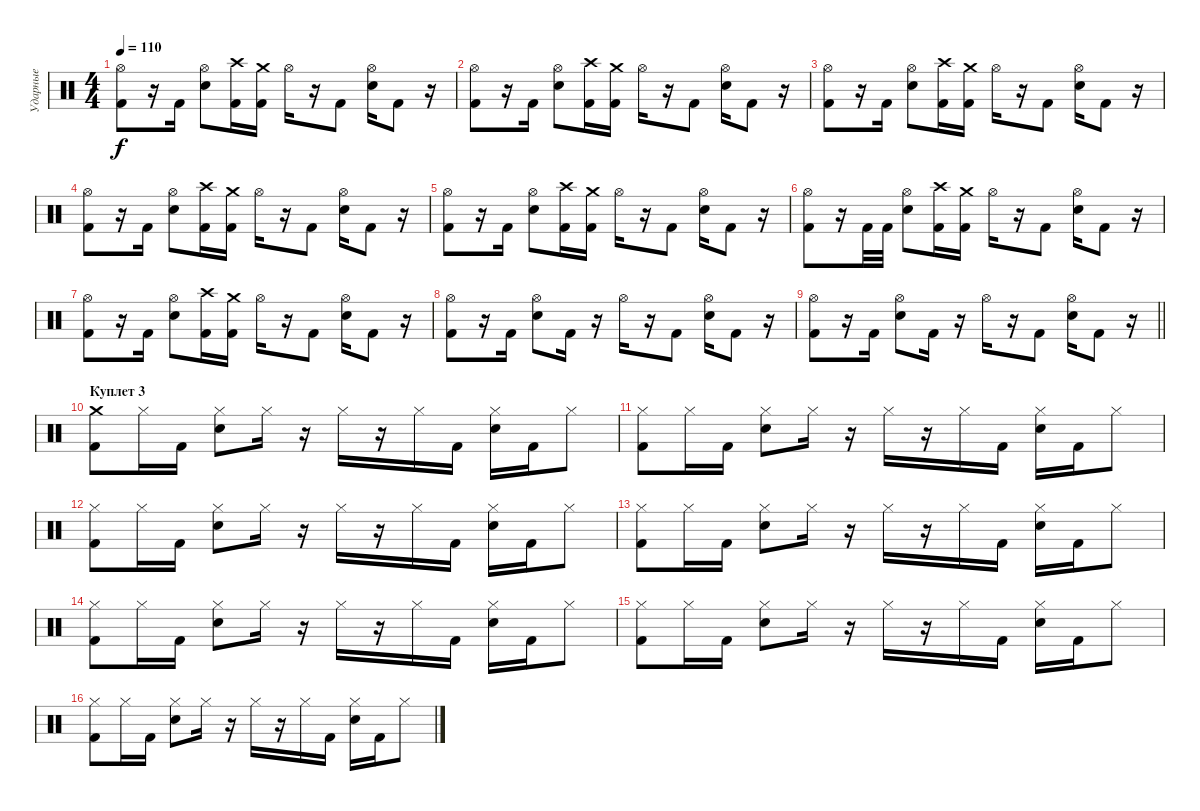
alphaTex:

\track ("Ударные" "Ударные") {instrument percussion}
\staff {score}
\articulation defaults
\ts (4 4)
\tempo 110
\clef neutral
\ks c
("Hi-Hat (open)" "Kick (hit) 2").8{dy f} r.16 "Kick (hit) 2".16 ("Hi-Hat (open)" "Snare (hit) 2").8 ("Crash high (hit)" "Kick (hit) 2").16 ("Crash medium (hit)" "Kick (hit) 2").16 "Hi-Hat (open)".16 r.16 "Kick (hit) 2".8 ("Hi-Hat (open)" "Snare (hit) 2").16 "Kick (hit) 2".8 r.16 |
("Hi-Hat (open)" "Kick (hit) 2").8 r.16 "Kick (hit) 2".16 ("Hi-Hat (open)" "Snare (hit) 2").8 ("Crash high (hit)" "Kick (hit) 2").16 ("Crash medium (hit)" "Kick (hit) 2").16 "Hi-Hat (open)".16 r.16 "Kick (hit) 2".8 ("Hi-Hat (open)" "Snare (hit) 2").16 "Kick (hit) 2".8 r.16 |
("Hi-Hat (open)" "Kick (hit) 2").8 r.16 "Kick (hit) 2".16 ("Hi-Hat (open)" "Snare (hit) 2").8 ("Crash high (hit)" "Kick (hit) 2").16 ("Crash medium (hit)" "Kick (hit) 2").16 "Hi-Hat (open)".16 r.16 "Kick (hit) 2".8 ("Hi-Hat (open)" "Snare (hit) 2").16 "Kick (hit) 2".8 r.16 |
("Hi-Hat (open)" "Kick (hit) 2").8 r.16 "Kick (hit) 2".16 ("Hi-Hat (open)" "Snare (hit) 2").8 ("Crash high (hit)" "Kick (hit) 2").16 ("Crash medium (hit)" "Kick (hit) 2").16 "Hi-Hat (open)".16 r.16 "Kick (hit) 2".8 ("Hi-Hat (open)" "Snare (hit) 2").16 "Kick (hit) 2".8 r.16 |
("Hi-Hat (open)" "Kick (hit) 2").8 r.16 "Kick (hit) 2".16 ("Hi-Hat (open)" "Snare (hit) 2").8 ("Crash high (hit)" "Kick (hit) 2").16 ("Crash medium (hit)" "Kick (hit) 2").16 "Hi-Hat (open)".16 r.16 "Kick (hit) 2".8 ("Hi-Hat (open)" "Snare (hit) 2").16 "Kick (hit) 2".8 r.16 |
("Hi-Hat (open)" "Kick (hit) 2").8 r.16 "Kick (hit) 2".32 "Kick (hit) 2".32 ("Hi-Hat (open)" "Snare (hit) 2").8 ("Crash high (hit)" "Kick (hit) 2").16 ("Crash medium (hit)" "Kick (hit) 2").16 "Hi-Hat (open)".16 r.16 "Kick (hit) 2".8 ("Hi-Hat (open)" "Snare (hit) 2").16 "Kick (hit) 2".8 r.16 |
("Hi-Hat (open)" "Kick (hit) 2").8 r.16 "Kick (hit) 2".16 ("Hi-Hat (open)" "Snare (hit) 2").8 ("Crash high (hit)" "Kick (hit) 2").16 ("Crash medium (hit)" "Kick (hit) 2").16 "Hi-Hat (open)".16 r.16 "Kick (hit) 2".8 ("Hi-Hat (open)" "Snare (hit) 2").16 "Kick (hit) 2".8 r.16 |
("Hi-Hat (open)" "Kick (hit) 2").8 r.16 "Kick (hit) 2".16 ("Hi-Hat (open)" "Snare (hit) 2").8 "Kick (hit) 2".16 r.16 "Hi-Hat (open)".16 r.16 "Kick (hit) 2".8 ("Hi-Hat (open)" "Snare (hit) 2").16 "Kick (hit) 2".8 r.16 |
\barLineRight lightlight
("Hi-Hat (open)" "Kick (hit) 2").8 r.16 "Kick (hit) 2".16 ("Hi-Hat (open)" "Snare (hit) 2").8 "Kick (hit) 2".16 r.16 "Hi-Hat (open)".16 r.16 "Kick (hit) 2".8 ("Hi-Hat (open)" "Snare (hit) 2").16 "Kick (hit) 2".8 r.16 |
\section ("" "Куплет 3")
("Crash medium (hit)" "Kick (hit) 2").8 "Hi-Hat (closed)".16 "Kick (hit) 2".16 ("Hi-Hat (closed)" "Snare (hit) 2").8 "Hi-Hat (closed)".16 r.16 "Hi-Hat (closed)".16 r.16 "Hi-Hat (closed)".16 "Kick (hit) 2".16 ("Hi-Hat (closed)" "Snare (hit) 2").16 "Kick (hit) 2".16 "Hi-Hat (closed)".8 |
("Hi-Hat (closed)" "Kick (hit) 2").8 "Hi-Hat (closed)".16 "Kick (hit) 2".16 ("Hi-Hat (closed)" "Snare (hit) 2").8 "Hi-Hat (closed)".16 r.16 "Hi-Hat (closed)".16 r.16 "Hi-Hat (closed)".16 "Kick (hit) 2".16 ("Hi-Hat (closed)" "Snare (hit) 2").16 "Kick (hit) 2".16 "Hi-Hat (closed)".8 |
("Hi-Hat (closed)" "Kick (hit) 2").8 "Hi-Hat (closed)".16 "Kick (hit) 2".16 ("Hi-Hat (closed)" "Snare (hit) 2").8 "Hi-Hat (closed)".16 r.16 "Hi-Hat (closed)".16 r.16 "Hi-Hat (closed)".16 "Kick (hit) 2".16 ("Hi-Hat (closed)" "Snare (hit) 2").16 "Kick (hit) 2".16 "Hi-Hat (closed)".8 |
("Hi-Hat (closed)" "Kick (hit) 2").8 "Hi-Hat (closed)".16 "Kick (hit) 2".16 ("Hi-Hat (closed)" "Snare (hit) 2").8 "Hi-Hat (closed)".16 r.16 "Hi-Hat (closed)".16 r.16 "Hi-Hat (closed)".16 "Kick (hit) 2".16 ("Hi-Hat (closed)" "Snare (hit) 2").16 "Kick (hit) 2".16 "Hi-Hat (closed)".8 |
("Hi-Hat (closed)" "Kick (hit) 2").8 "Hi-Hat (closed)".16 "Kick (hit) 2".16 ("Hi-Hat (closed)" "Snare (hit) 2").8 "Hi-Hat (closed)".16 r.16 "Hi-Hat (closed)".16 r.16 "Hi-Hat (closed)".16 "Kick (hit) 2".16 ("Hi-Hat (closed)" "Snare (hit) 2").16 "Kick (hit) 2".16 "Hi-Hat (closed)".8 |
("Hi-Hat (closed)" "Kick (hit) 2").8 "Hi-Hat (closed)".16 "Kick (hit) 2".16 ("Hi-Hat (closed)" "Snare (hit) 2").8 "Hi-Hat (closed)".16 r.16 "Hi-Hat (closed)".16 r.16 "Hi-Hat (closed)".16 "Kick (hit) 2".16 ("Hi-Hat (closed)" "Snare (hit) 2").16 "Kick (hit) 2".16 "Hi-Hat (closed)".8 |
("Hi-Hat (closed)" "Kick (hit) 2").8 "Hi-Hat (closed)".16 "Kick (hit) 2".16 ("Hi-Hat (closed)" "Snare (hit) 2").8 "Hi-Hat (closed)".16 r.16 "Hi-Hat (closed)".16 r.16 "Hi-Hat (closed)".16 "Kick (hit) 2".16 ("Hi-Hat (closed)" "Snare (hit) 2").16 "Kick (hit) 2".16 "Hi-Hat (closed)".8
